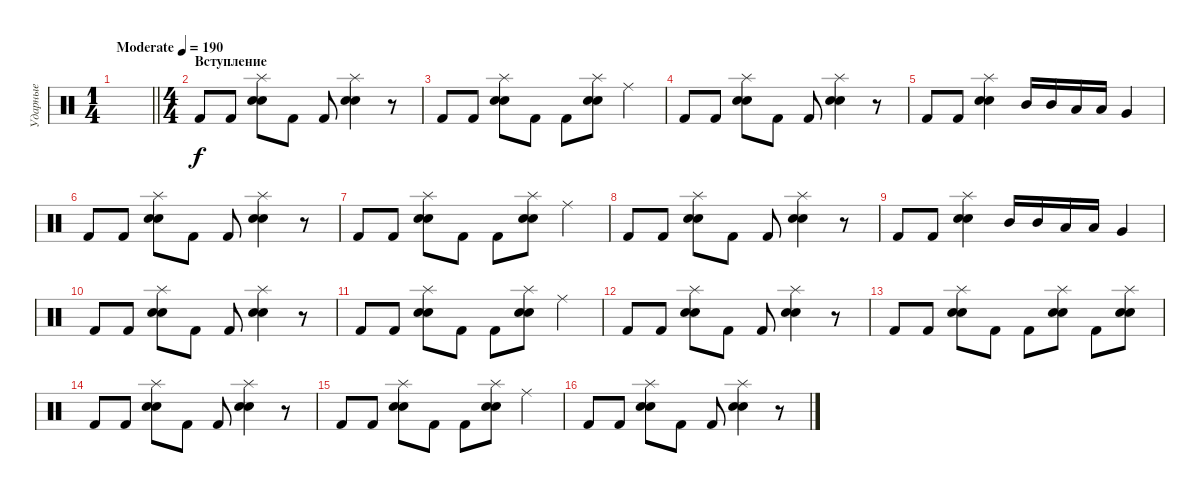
\track ("Ударные" "Ударные") {instrument percussion}
\staff {score}
\articulation defaults
\ts (1 4)
\tempo (190 "Moderate")
\clef neutral
\barLineRight lightlight
\ks c
|
\ts (4 4)
\section ("" "Вступление")
"Kick (hit) 2".8 "Kick (hit) 2".8 ("Splash (hit)" "Electric Snare (hit)" "Snare (hit) 2").8 "Kick (hit) 2".8 "Kick (hit) 2".8 ("Splash (hit)" "Electric Snare (hit)" "Snare (hit) 2").4 r.8 |
"Kick (hit) 2".8 "Kick (hit) 2".8 ("Splash (hit)" "Electric Snare (hit)" "Snare (hit) 2").8 "Kick (hit) 2".8 "Kick (hit) 2".8 ("Splash (hit)" "Electric Snare (hit)" "Snare (hit) 2").8 "Ride (middle)".4 |
"Kick (hit) 2".8 "Kick (hit) 2".8 ("Splash (hit)" "Electric Snare (hit)" "Snare (hit) 2").8 "Kick (hit) 2".8 "Kick (hit) 2".8 ("Splash (hit)" "Electric Snare (hit)" "Snare (hit) 2").4 r.8 |
"Kick (hit) 2".8 "Kick (hit) 2".8 ("Splash (hit)" "Electric Snare (hit)" "Snare (hit) 2").4 "Mid Tom (hit)".16 "Mid Tom (hit)".16 "Low Tom (hit)".16 "Low Tom (hit)".16 "Very Low Tom (hit)".4 |
"Kick (hit) 2".8 "Kick (hit) 2".8 ("Splash (hit)" "Electric Snare (hit)" "Snare (hit) 2").8 "Kick (hit) 2".8 "Kick (hit) 2".8 ("Splash (hit)" "Electric Snare (hit)" "Snare (hit) 2").4 r.8 |
"Kick (hit) 2".8 "Kick (hit) 2".8 ("Splash (hit)" "Electric Snare (hit)" "Snare (hit) 2").8 "Kick (hit) 2".8 "Kick (hit) 2".8 ("Splash (hit)" "Electric Snare (hit)" "Snare (hit) 2").8 "Ride (middle)".4 |
"Kick (hit) 2".8 "Kick (hit) 2".8 ("Splash (hit)" "Electric Snare (hit)" "Snare (hit) 2").8 "Kick (hit) 2".8 "Kick (hit) 2".8 ("Splash (hit)" "Electric Snare (hit)" "Snare (hit) 2").4 r.8 |
"Kick (hit) 2".8 "Kick (hit) 2".8 ("Splash (hit)" "Electric Snare (hit)" "Snare (hit) 2").4 "Mid Tom (hit)".16 "Mid Tom (hit)".16 "Low Tom (hit)".16 "Low Tom (hit)".16 "Very Low Tom (hit)".4 |
"Kick (hit) 2".8 "Kick (hit) 2".8 ("Splash (hit)" "Electric Snare (hit)" "Snare (hit) 2").8 "Kick (hit) 2".8 "Kick (hit) 2".8 ("Splash (hit)" "Electric Snare (hit)" "Snare (hit) 2").4 r.8 |
"Kick (hit) 2".8 "Kick (hit) 2".8 ("Splash (hit)" "Electric Snare (hit)" "Snare (hit) 2").8 "Kick (hit) 2".8 "Kick (hit) 2".8 ("Splash (hit)" "Electric Snare (hit)" "Snare (hit) 2").8 "Ride (middle)".4 |
"Kick (hit) 2".8 "Kick (hit) 2".8 ("Splash (hit)" "Electric Snare (hit)" "Snare (hit) 2").8 "Kick (hit) 2".8 "Kick (hit) 2".8 ("Splash (hit)" "Electric Snare (hit)" "Snare (hit) 2").4 r.8 |
"Kick (hit) 2".8 "Kick (hit) 2".8 ("Splash (hit)" "Electric Snare (hit)" "Snare (hit) 2").8 "Kick (hit) 2".8 "Kick (hit) 2".8 ("Splash (hit)" "Electric Snare (hit)" "Snare (hit) 2").8 "Kick (hit) 2".8 ("Splash (hit)" "Electric Snare (hit)" "Snare (hit) 2").8 |
"Kick (hit) 2".8 "Kick (hit) 2".8 ("Splash (hit)" "Electric Snare (hit)" "Snare (hit) 2").8 "Kick (hit) 2".8 "Kick (hit) 2".8 ("Splash (hit)" "Electric Snare (hit)" "Snare (hit) 2").4 r.8 |
"Kick (hit) 2".8 "Kick (hit) 2".8 ("Splash (hit)" "Electric Snare (hit)" "Snare (hit) 2").8 "Kick (hit) 2".8 "Kick (hit) 2".8 ("Splash (hit)" "Electric Snare (hit)" "Snare (hit) 2").8 "Ride (middle)".4 |
"Kick (hit) 2".8 "Kick (hit) 2".8 ("Splash (hit)" "Electric Snare (hit)" "Snare (hit) 2").8 "Kick (hit) 2".8 "Kick (hit) 2".8 ("Splash (hit)" "Electric Snare (hit)" "Snare (hit) 2").4 r.8
